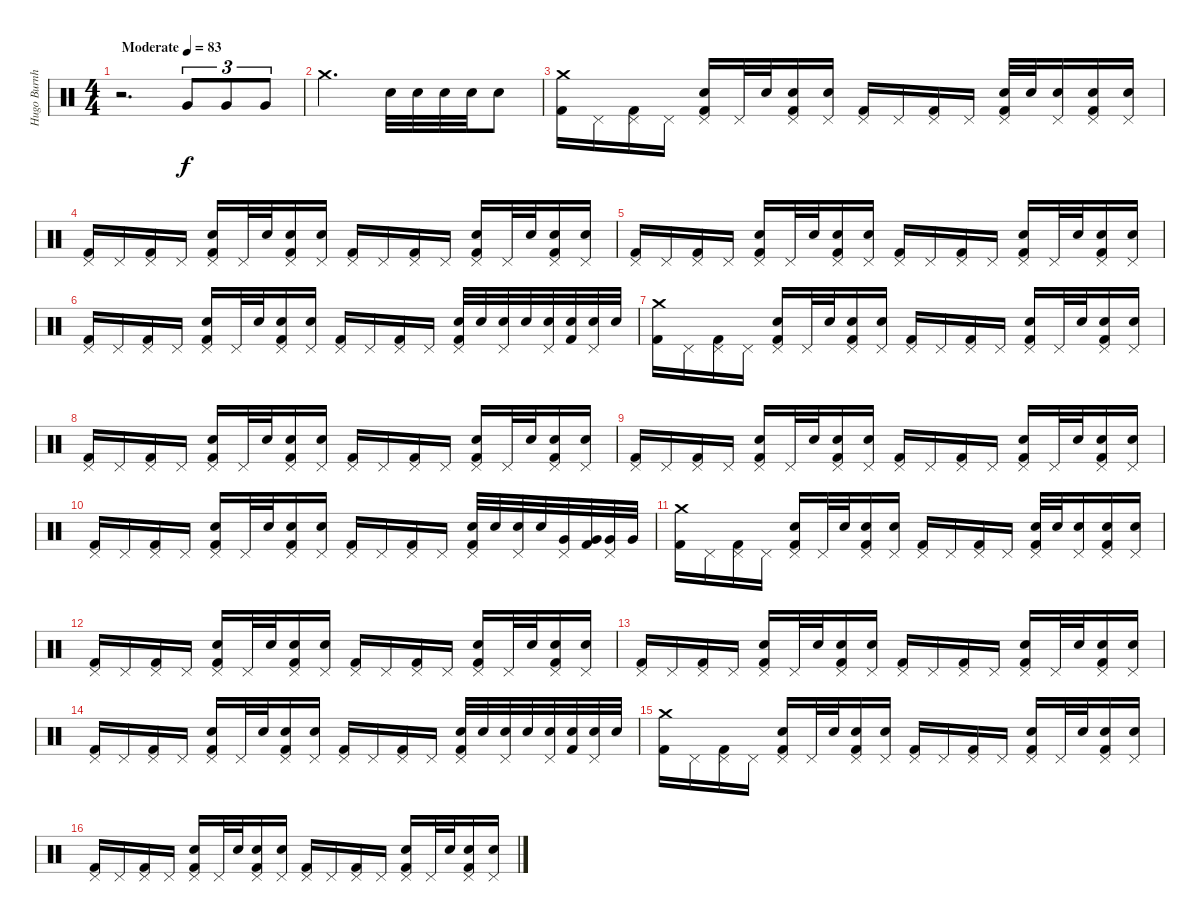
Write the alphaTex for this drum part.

\track ("Hugo Burnham" "Hugo Burnh") {instrument percussion}
\staff {score}
\articulation defaults
\ts (4 4)
\tempo (83 "Moderate")
\clef neutral
\ks c
r.2{d dy f} "Very Low Tom (hit)".8{tu (3 2)} "Very Low Tom (hit)".8{tu (3 2)} "Very Low Tom (hit)".8{tu (3 2)} |
"Crash medium (hit)".2{d} "Electric Snare (hit)".32 "Electric Snare (hit)".32 "Electric Snare (hit)".32 "Electric Snare (hit)".32 "Electric Snare (hit)".8 |
("Crash medium (hit)" "Kick (hit) 2").16 "Pedal Hi-Hat (hit)".16 ("Pedal Hi-Hat (hit)" "Kick (hit) 2").16 "Pedal Hi-Hat (hit)".16 ("Pedal Hi-Hat (hit)" "Electric Snare (hit)" "Kick (hit) 2").16 "Pedal Hi-Hat (hit)".32 "Electric Snare (hit)".32 ("Pedal Hi-Hat (hit)" "Electric Snare (hit)" "Kick (hit) 2").16 ("Pedal Hi-Hat (hit)" "Electric Snare (hit)").16 ("Pedal Hi-Hat (hit)" "Kick (hit) 2").16 "Pedal Hi-Hat (hit)".16 ("Pedal Hi-Hat (hit)" "Kick (hit) 2").16 "Pedal Hi-Hat (hit)".16 ("Pedal Hi-Hat (hit)" "Electric Snare (hit)" "Kick (hit) 2").32 "Electric Snare (hit)".32 ("Pedal Hi-Hat (hit)" "Electric Snare (hit)").16 ("Pedal Hi-Hat (hit)" "Electric Snare (hit)" "Kick (hit) 2").16 ("Pedal Hi-Hat (hit)" "Electric Snare (hit)").16 |
("Pedal Hi-Hat (hit)" "Kick (hit) 2").16 "Pedal Hi-Hat (hit)".16 ("Pedal Hi-Hat (hit)" "Kick (hit) 2").16 "Pedal Hi-Hat (hit)".16 ("Pedal Hi-Hat (hit)" "Electric Snare (hit)" "Kick (hit) 2").16 "Pedal Hi-Hat (hit)".32 "Electric Snare (hit)".32 ("Pedal Hi-Hat (hit)" "Electric Snare (hit)" "Kick (hit) 2").16 ("Pedal Hi-Hat (hit)" "Electric Snare (hit)").16 ("Pedal Hi-Hat (hit)" "Kick (hit) 2").16 "Pedal Hi-Hat (hit)".16 ("Pedal Hi-Hat (hit)" "Kick (hit) 2").16 "Pedal Hi-Hat (hit)".16 ("Pedal Hi-Hat (hit)" "Electric Snare (hit)" "Kick (hit) 2").16 "Pedal Hi-Hat (hit)".32 "Electric Snare (hit)".32 ("Pedal Hi-Hat (hit)" "Electric Snare (hit)" "Kick (hit) 2").16 ("Pedal Hi-Hat (hit)" "Electric Snare (hit)").16 |
("Pedal Hi-Hat (hit)" "Kick (hit) 2").16 "Pedal Hi-Hat (hit)".16 ("Pedal Hi-Hat (hit)" "Kick (hit) 2").16 "Pedal Hi-Hat (hit)".16 ("Pedal Hi-Hat (hit)" "Electric Snare (hit)" "Kick (hit) 2").16 "Pedal Hi-Hat (hit)".32 "Electric Snare (hit)".32 ("Pedal Hi-Hat (hit)" "Electric Snare (hit)" "Kick (hit) 2").16 ("Pedal Hi-Hat (hit)" "Electric Snare (hit)").16 ("Pedal Hi-Hat (hit)" "Kick (hit) 2").16 "Pedal Hi-Hat (hit)".16 ("Pedal Hi-Hat (hit)" "Kick (hit) 2").16 "Pedal Hi-Hat (hit)".16 ("Pedal Hi-Hat (hit)" "Electric Snare (hit)" "Kick (hit) 2").16 "Pedal Hi-Hat (hit)".32 "Electric Snare (hit)".32 ("Pedal Hi-Hat (hit)" "Electric Snare (hit)" "Kick (hit) 2").16 ("Pedal Hi-Hat (hit)" "Electric Snare (hit)").16 |
("Pedal Hi-Hat (hit)" "Kick (hit) 2").16 "Pedal Hi-Hat (hit)".16 ("Pedal Hi-Hat (hit)" "Kick (hit) 2").16 "Pedal Hi-Hat (hit)".16 ("Pedal Hi-Hat (hit)" "Electric Snare (hit)" "Kick (hit) 2").16 "Pedal Hi-Hat (hit)".32 "Electric Snare (hit)".32 ("Pedal Hi-Hat (hit)" "Electric Snare (hit)" "Kick (hit) 2").16 ("Pedal Hi-Hat (hit)" "Electric Snare (hit)").16 ("Pedal Hi-Hat (hit)" "Kick (hit) 2").16 "Pedal Hi-Hat (hit)".16 ("Pedal Hi-Hat (hit)" "Kick (hit) 2").16 "Pedal Hi-Hat (hit)".16 ("Pedal Hi-Hat (hit)" "Electric Snare (hit)" "Kick (hit) 2").32 "Electric Snare (hit)".32 ("Pedal Hi-Hat (hit)" "Electric Snare (hit)").32 "Electric Snare (hit)".32 ("Pedal Hi-Hat (hit)" "Electric Snare (hit)").32 ("Electric Snare (hit)" "Kick (hit) 2").32 ("Pedal Hi-Hat (hit)" "Electric Snare (hit)").32 "Electric Snare (hit)".32 |
("Crash medium (hit)" "Kick (hit) 2").16 "Pedal Hi-Hat (hit)".16 ("Pedal Hi-Hat (hit)" "Kick (hit) 2").16 "Pedal Hi-Hat (hit)".16 ("Pedal Hi-Hat (hit)" "Electric Snare (hit)" "Kick (hit) 2").16 "Pedal Hi-Hat (hit)".32 "Electric Snare (hit)".32 ("Pedal Hi-Hat (hit)" "Electric Snare (hit)" "Kick (hit) 2").16 ("Pedal Hi-Hat (hit)" "Electric Snare (hit)").16 ("Pedal Hi-Hat (hit)" "Kick (hit) 2").16 "Pedal Hi-Hat (hit)".16 ("Pedal Hi-Hat (hit)" "Kick (hit) 2").16 "Pedal Hi-Hat (hit)".16 ("Pedal Hi-Hat (hit)" "Electric Snare (hit)" "Kick (hit) 2").16 "Pedal Hi-Hat (hit)".32 "Electric Snare (hit)".32 ("Pedal Hi-Hat (hit)" "Electric Snare (hit)" "Kick (hit) 2").16 ("Pedal Hi-Hat (hit)" "Electric Snare (hit)").16 |
("Pedal Hi-Hat (hit)" "Kick (hit) 2").16 "Pedal Hi-Hat (hit)".16 ("Pedal Hi-Hat (hit)" "Kick (hit) 2").16 "Pedal Hi-Hat (hit)".16 ("Pedal Hi-Hat (hit)" "Electric Snare (hit)" "Kick (hit) 2").16 "Pedal Hi-Hat (hit)".32 "Electric Snare (hit)".32 ("Pedal Hi-Hat (hit)" "Electric Snare (hit)" "Kick (hit) 2").16 ("Pedal Hi-Hat (hit)" "Electric Snare (hit)").16 ("Pedal Hi-Hat (hit)" "Kick (hit) 2").16 "Pedal Hi-Hat (hit)".16 ("Pedal Hi-Hat (hit)" "Kick (hit) 2").16 "Pedal Hi-Hat (hit)".16 ("Pedal Hi-Hat (hit)" "Electric Snare (hit)" "Kick (hit) 2").16 "Pedal Hi-Hat (hit)".32 "Electric Snare (hit)".32 ("Pedal Hi-Hat (hit)" "Electric Snare (hit)" "Kick (hit) 2").16 ("Pedal Hi-Hat (hit)" "Electric Snare (hit)").16 |
("Pedal Hi-Hat (hit)" "Kick (hit) 2").16 "Pedal Hi-Hat (hit)".16 ("Pedal Hi-Hat (hit)" "Kick (hit) 2").16 "Pedal Hi-Hat (hit)".16 ("Pedal Hi-Hat (hit)" "Electric Snare (hit)" "Kick (hit) 2").16 "Pedal Hi-Hat (hit)".32 "Electric Snare (hit)".32 ("Pedal Hi-Hat (hit)" "Electric Snare (hit)" "Kick (hit) 2").16 ("Pedal Hi-Hat (hit)" "Electric Snare (hit)").16 ("Pedal Hi-Hat (hit)" "Kick (hit) 2").16 "Pedal Hi-Hat (hit)".16 ("Pedal Hi-Hat (hit)" "Kick (hit) 2").16 "Pedal Hi-Hat (hit)".16 ("Pedal Hi-Hat (hit)" "Electric Snare (hit)" "Kick (hit) 2").16 "Pedal Hi-Hat (hit)".32 "Electric Snare (hit)".32 ("Pedal Hi-Hat (hit)" "Electric Snare (hit)" "Kick (hit) 2").16 ("Pedal Hi-Hat (hit)" "Electric Snare (hit)").16 |
("Pedal Hi-Hat (hit)" "Kick (hit) 2").16 "Pedal Hi-Hat (hit)".16 ("Pedal Hi-Hat (hit)" "Kick (hit) 2").16 "Pedal Hi-Hat (hit)".16 ("Pedal Hi-Hat (hit)" "Electric Snare (hit)" "Kick (hit) 2").16 "Pedal Hi-Hat (hit)".32 "Electric Snare (hit)".32 ("Pedal Hi-Hat (hit)" "Electric Snare (hit)" "Kick (hit) 2").16 ("Pedal Hi-Hat (hit)" "Electric Snare (hit)").16 ("Pedal Hi-Hat (hit)" "Kick (hit) 2").16 "Pedal Hi-Hat (hit)".16 ("Pedal Hi-Hat (hit)" "Kick (hit) 2").16 "Pedal Hi-Hat (hit)".16 ("Pedal Hi-Hat (hit)" "Electric Snare (hit)" "Kick (hit) 2").32 "Electric Snare (hit)".32 ("Pedal Hi-Hat (hit)" "Electric Snare (hit)").32 "Electric Snare (hit)".32 ("Pedal Hi-Hat (hit)" "Very Low Tom (hit)").32 ("Very Low Tom (hit)" "Kick (hit) 2").32 ("Pedal Hi-Hat (hit)" "Very Low Tom (hit)").32 "Very Low Tom (hit)".32 |
("Crash medium (hit)" "Kick (hit) 2").16 "Pedal Hi-Hat (hit)".16 ("Pedal Hi-Hat (hit)" "Kick (hit) 2").16 "Pedal Hi-Hat (hit)".16 ("Pedal Hi-Hat (hit)" "Electric Snare (hit)" "Kick (hit) 2").16 "Pedal Hi-Hat (hit)".32 "Electric Snare (hit)".32 ("Pedal Hi-Hat (hit)" "Electric Snare (hit)" "Kick (hit) 2").16 ("Pedal Hi-Hat (hit)" "Electric Snare (hit)").16 ("Pedal Hi-Hat (hit)" "Kick (hit) 2").16 "Pedal Hi-Hat (hit)".16 ("Pedal Hi-Hat (hit)" "Kick (hit) 2").16 "Pedal Hi-Hat (hit)".16 ("Pedal Hi-Hat (hit)" "Electric Snare (hit)" "Kick (hit) 2").32 "Electric Snare (hit)".32 ("Pedal Hi-Hat (hit)" "Electric Snare (hit)").16 ("Pedal Hi-Hat (hit)" "Electric Snare (hit)" "Kick (hit) 2").16 ("Pedal Hi-Hat (hit)" "Electric Snare (hit)").16 |
("Pedal Hi-Hat (hit)" "Kick (hit) 2").16 "Pedal Hi-Hat (hit)".16 ("Pedal Hi-Hat (hit)" "Kick (hit) 2").16 "Pedal Hi-Hat (hit)".16 ("Pedal Hi-Hat (hit)" "Electric Snare (hit)" "Kick (hit) 2").16 "Pedal Hi-Hat (hit)".32 "Electric Snare (hit)".32 ("Pedal Hi-Hat (hit)" "Electric Snare (hit)" "Kick (hit) 2").16 ("Pedal Hi-Hat (hit)" "Electric Snare (hit)").16 ("Pedal Hi-Hat (hit)" "Kick (hit) 2").16 "Pedal Hi-Hat (hit)".16 ("Pedal Hi-Hat (hit)" "Kick (hit) 2").16 "Pedal Hi-Hat (hit)".16 ("Pedal Hi-Hat (hit)" "Electric Snare (hit)" "Kick (hit) 2").16 "Pedal Hi-Hat (hit)".32 "Electric Snare (hit)".32 ("Pedal Hi-Hat (hit)" "Electric Snare (hit)" "Kick (hit) 2").16 ("Pedal Hi-Hat (hit)" "Electric Snare (hit)").16 |
("Pedal Hi-Hat (hit)" "Kick (hit) 2").16 "Pedal Hi-Hat (hit)".16 ("Pedal Hi-Hat (hit)" "Kick (hit) 2").16 "Pedal Hi-Hat (hit)".16 ("Pedal Hi-Hat (hit)" "Electric Snare (hit)" "Kick (hit) 2").16 "Pedal Hi-Hat (hit)".32 "Electric Snare (hit)".32 ("Pedal Hi-Hat (hit)" "Electric Snare (hit)" "Kick (hit) 2").16 ("Pedal Hi-Hat (hit)" "Electric Snare (hit)").16 ("Pedal Hi-Hat (hit)" "Kick (hit) 2").16 "Pedal Hi-Hat (hit)".16 ("Pedal Hi-Hat (hit)" "Kick (hit) 2").16 "Pedal Hi-Hat (hit)".16 ("Pedal Hi-Hat (hit)" "Electric Snare (hit)" "Kick (hit) 2").16 "Pedal Hi-Hat (hit)".32 "Electric Snare (hit)".32 ("Pedal Hi-Hat (hit)" "Electric Snare (hit)" "Kick (hit) 2").16 ("Pedal Hi-Hat (hit)" "Electric Snare (hit)").16 |
("Pedal Hi-Hat (hit)" "Kick (hit) 2").16 "Pedal Hi-Hat (hit)".16 ("Pedal Hi-Hat (hit)" "Kick (hit) 2").16 "Pedal Hi-Hat (hit)".16 ("Pedal Hi-Hat (hit)" "Electric Snare (hit)" "Kick (hit) 2").16 "Pedal Hi-Hat (hit)".32 "Electric Snare (hit)".32 ("Pedal Hi-Hat (hit)" "Electric Snare (hit)" "Kick (hit) 2").16 ("Pedal Hi-Hat (hit)" "Electric Snare (hit)").16 ("Pedal Hi-Hat (hit)" "Kick (hit) 2").16 "Pedal Hi-Hat (hit)".16 ("Pedal Hi-Hat (hit)" "Kick (hit) 2").16 "Pedal Hi-Hat (hit)".16 ("Pedal Hi-Hat (hit)" "Electric Snare (hit)" "Kick (hit) 2").32 "Electric Snare (hit)".32 ("Pedal Hi-Hat (hit)" "Electric Snare (hit)").32 "Electric Snare (hit)".32 ("Pedal Hi-Hat (hit)" "Electric Snare (hit)").32 ("Electric Snare (hit)" "Kick (hit) 2").32 ("Pedal Hi-Hat (hit)" "Electric Snare (hit)").32 "Electric Snare (hit)".32 |
("Crash medium (hit)" "Kick (hit) 2").16 "Pedal Hi-Hat (hit)".16 ("Pedal Hi-Hat (hit)" "Kick (hit) 2").16 "Pedal Hi-Hat (hit)".16 ("Pedal Hi-Hat (hit)" "Electric Snare (hit)" "Kick (hit) 2").16 "Pedal Hi-Hat (hit)".32 "Electric Snare (hit)".32 ("Pedal Hi-Hat (hit)" "Electric Snare (hit)" "Kick (hit) 2").16 ("Pedal Hi-Hat (hit)" "Electric Snare (hit)").16 ("Pedal Hi-Hat (hit)" "Kick (hit) 2").16 "Pedal Hi-Hat (hit)".16 ("Pedal Hi-Hat (hit)" "Kick (hit) 2").16 "Pedal Hi-Hat (hit)".16 ("Pedal Hi-Hat (hit)" "Electric Snare (hit)" "Kick (hit) 2").16 "Pedal Hi-Hat (hit)".32 "Electric Snare (hit)".32 ("Pedal Hi-Hat (hit)" "Electric Snare (hit)" "Kick (hit) 2").16 ("Pedal Hi-Hat (hit)" "Electric Snare (hit)").16 |
("Pedal Hi-Hat (hit)" "Kick (hit) 2").16 "Pedal Hi-Hat (hit)".16 ("Pedal Hi-Hat (hit)" "Kick (hit) 2").16 "Pedal Hi-Hat (hit)".16 ("Pedal Hi-Hat (hit)" "Electric Snare (hit)" "Kick (hit) 2").16 "Pedal Hi-Hat (hit)".32 "Electric Snare (hit)".32 ("Pedal Hi-Hat (hit)" "Electric Snare (hit)" "Kick (hit) 2").16 ("Pedal Hi-Hat (hit)" "Electric Snare (hit)").16 ("Pedal Hi-Hat (hit)" "Kick (hit) 2").16 "Pedal Hi-Hat (hit)".16 ("Pedal Hi-Hat (hit)" "Kick (hit) 2").16 "Pedal Hi-Hat (hit)".16 ("Pedal Hi-Hat (hit)" "Electric Snare (hit)" "Kick (hit) 2").16 "Pedal Hi-Hat (hit)".32 "Electric Snare (hit)".32 ("Pedal Hi-Hat (hit)" "Electric Snare (hit)" "Kick (hit) 2").16 ("Pedal Hi-Hat (hit)" "Electric Snare (hit)").16
